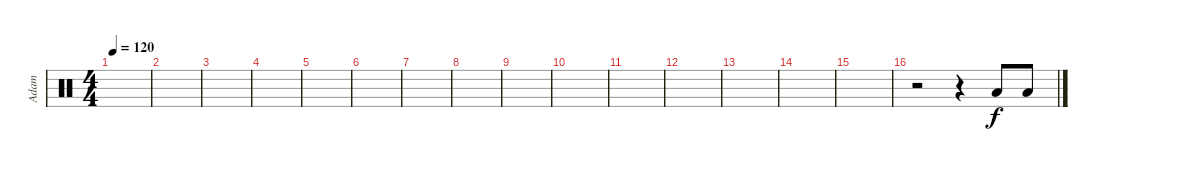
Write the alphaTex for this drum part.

\track ("Adam" "Adam") {instrument percussion}
\staff {score}
\articulation defaults
\ts (4 4)
\tempo 120
\clef neutral
\ks c
|
|
|
|
|
|
|
|
|
|
|
|
|
|
|
r.2 r.4 "Low Tom (hit)".8 "Low Floor Tom (hit)".8
